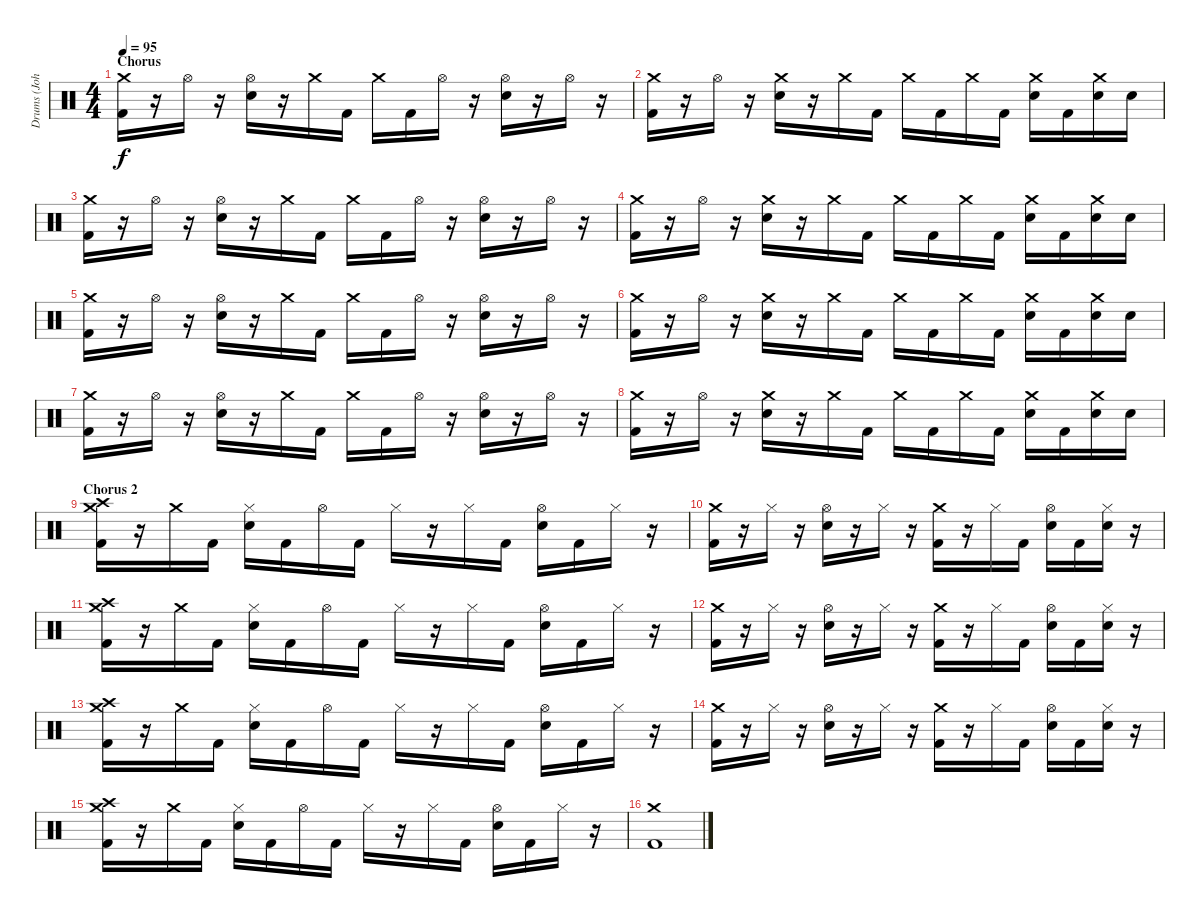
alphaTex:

\track ("Drums (John Otto)" "Drums (Joh") {instrument percussion}
\staff {score}
\articulation defaults
\ts (4 4)
\section ("" "Chorus")
\tempo 95
\clef neutral
\ks c
("Crash medium (hit)" "Kick (hit) 2").16{dy f} r.16 "Hi-Hat (open)".16 r.16 ("Hi-Hat (open)" "Electric Snare (hit)").16 r.16 "Crash medium (hit)".16 "Kick (hit) 2".16 "Crash medium (hit)".16 "Kick (hit) 2".16 "Hi-Hat (open)".16 r.16 ("Hi-Hat (open)" "Electric Snare (hit)").16 r.16 "Hi-Hat (open)".16 r.16 |
("Crash medium (hit)" "Kick (hit) 2").16 r.16 "Hi-Hat (open)".16 r.16 ("Crash medium (hit)" "Electric Snare (hit)").16 r.16 "Crash medium (hit)".16 "Kick (hit) 2".16 "Crash medium (hit)".16 "Kick (hit) 2".16 "Crash medium (hit)".16 "Kick (hit) 2".16 ("Crash medium (hit)" "Electric Snare (hit)").16 "Kick (hit) 2".16 ("Crash medium (hit)" "Electric Snare (hit)").16 "Electric Snare (hit)".16 |
("Crash medium (hit)" "Kick (hit) 2").16 r.16 "Hi-Hat (open)".16 r.16 ("Hi-Hat (open)" "Electric Snare (hit)").16 r.16 "Crash medium (hit)".16 "Kick (hit) 2".16 "Crash medium (hit)".16 "Kick (hit) 2".16 "Hi-Hat (open)".16 r.16 ("Hi-Hat (open)" "Electric Snare (hit)").16 r.16 "Hi-Hat (open)".16 r.16 |
("Crash medium (hit)" "Kick (hit) 2").16 r.16 "Hi-Hat (open)".16 r.16 ("Crash medium (hit)" "Electric Snare (hit)").16 r.16 "Crash medium (hit)".16 "Kick (hit) 2".16 "Crash medium (hit)".16 "Kick (hit) 2".16 "Crash medium (hit)".16 "Kick (hit) 2".16 ("Crash medium (hit)" "Electric Snare (hit)").16 "Kick (hit) 2".16 ("Crash medium (hit)" "Electric Snare (hit)").16 "Electric Snare (hit)".16 |
("Crash medium (hit)" "Kick (hit) 2").16 r.16 "Hi-Hat (open)".16 r.16 ("Hi-Hat (open)" "Electric Snare (hit)").16 r.16 "Crash medium (hit)".16 "Kick (hit) 2".16 "Crash medium (hit)".16 "Kick (hit) 2".16 "Hi-Hat (open)".16 r.16 ("Hi-Hat (open)" "Electric Snare (hit)").16 r.16 "Hi-Hat (open)".16 r.16 |
("Crash medium (hit)" "Kick (hit) 2").16 r.16 "Hi-Hat (open)".16 r.16 ("Crash medium (hit)" "Electric Snare (hit)").16 r.16 "Crash medium (hit)".16 "Kick (hit) 2".16 "Crash medium (hit)".16 "Kick (hit) 2".16 "Crash medium (hit)".16 "Kick (hit) 2".16 ("Crash medium (hit)" "Electric Snare (hit)").16 "Kick (hit) 2".16 ("Crash medium (hit)" "Electric Snare (hit)").16 "Electric Snare (hit)".16 |
("Crash medium (hit)" "Kick (hit) 2").16 r.16 "Hi-Hat (open)".16 r.16 ("Hi-Hat (open)" "Electric Snare (hit)").16 r.16 "Crash medium (hit)".16 "Kick (hit) 2".16 "Crash medium (hit)".16 "Kick (hit) 2".16 "Hi-Hat (open)".16 r.16 ("Hi-Hat (open)" "Electric Snare (hit)").16 r.16 "Hi-Hat (open)".16 r.16 |
("Crash medium (hit)" "Kick (hit) 2").16 r.16 "Hi-Hat (open)".16 r.16 ("Crash medium (hit)" "Electric Snare (hit)").16 r.16 "Crash medium (hit)".16 "Kick (hit) 2".16 "Crash medium (hit)".16 "Kick (hit) 2".16 "Crash medium (hit)".16 "Kick (hit) 2".16 ("Crash medium (hit)" "Electric Snare (hit)").16 "Kick (hit) 2".16 ("Crash medium (hit)" "Electric Snare (hit)").16 "Electric Snare (hit)".16 |
\section ("" "Chorus 2")
("Crash medium (hit)" "Crash high (hit)" "Kick (hit) 2").16 r.16 "Crash medium (hit)".16 "Kick (hit) 2".16 ("Hi-Hat (closed)" "Electric Snare (hit)").16 "Kick (hit) 2".16 "Hi-Hat (open)".16 "Kick (hit) 2".16 "Hi-Hat (closed)".16 r.16 "Hi-Hat (closed)".16 "Kick (hit) 2".16 ("Hi-Hat (open)" "Electric Snare (hit)").16 "Kick (hit) 2".16 "Hi-Hat (closed)".16 r.16 |
("Crash medium (hit)" "Kick (hit) 2").16 r.16 "Hi-Hat (closed)".16 r.16 ("Hi-Hat (open)" "Electric Snare (hit)").16 r.16 "Hi-Hat (closed)".16 r.16 ("Crash medium (hit)" "Kick (hit) 2").16 r.16 "Hi-Hat (closed)".16 "Kick (hit) 2".16 ("Hi-Hat (open)" "Electric Snare (hit)").16 "Kick (hit) 2".16 ("Hi-Hat (closed)" "Electric Snare (hit)").16 r.16 |
("Crash medium (hit)" "Crash high (hit)" "Kick (hit) 2").16 r.16 "Crash medium (hit)".16 "Kick (hit) 2".16 ("Hi-Hat (closed)" "Electric Snare (hit)").16 "Kick (hit) 2".16 "Hi-Hat (open)".16 "Kick (hit) 2".16 "Hi-Hat (closed)".16 r.16 "Hi-Hat (closed)".16 "Kick (hit) 2".16 ("Hi-Hat (open)" "Electric Snare (hit)").16 "Kick (hit) 2".16 "Hi-Hat (closed)".16 r.16 |
("Crash medium (hit)" "Kick (hit) 2").16 r.16 "Hi-Hat (closed)".16 r.16 ("Hi-Hat (open)" "Electric Snare (hit)").16 r.16 "Hi-Hat (closed)".16 r.16 ("Crash medium (hit)" "Kick (hit) 2").16 r.16 "Hi-Hat (closed)".16 "Kick (hit) 2".16 ("Hi-Hat (open)" "Electric Snare (hit)").16 "Kick (hit) 2".16 ("Hi-Hat (closed)" "Electric Snare (hit)").16 r.16 |
("Crash medium (hit)" "Crash high (hit)" "Kick (hit) 2").16 r.16 "Crash medium (hit)".16 "Kick (hit) 2".16 ("Hi-Hat (closed)" "Electric Snare (hit)").16 "Kick (hit) 2".16 "Hi-Hat (open)".16 "Kick (hit) 2".16 "Hi-Hat (closed)".16 r.16 "Hi-Hat (closed)".16 "Kick (hit) 2".16 ("Hi-Hat (open)" "Electric Snare (hit)").16 "Kick (hit) 2".16 "Hi-Hat (closed)".16 r.16 |
("Crash medium (hit)" "Kick (hit) 2").16 r.16 "Hi-Hat (closed)".16 r.16 ("Hi-Hat (open)" "Electric Snare (hit)").16 r.16 "Hi-Hat (closed)".16 r.16 ("Crash medium (hit)" "Kick (hit) 2").16 r.16 "Hi-Hat (closed)".16 "Kick (hit) 2".16 ("Hi-Hat (open)" "Electric Snare (hit)").16 "Kick (hit) 2".16 ("Hi-Hat (closed)" "Electric Snare (hit)").16 r.16 |
("Crash medium (hit)" "Crash high (hit)" "Kick (hit) 2").16 r.16 "Crash medium (hit)".16 "Kick (hit) 2".16 ("Hi-Hat (closed)" "Electric Snare (hit)").16 "Kick (hit) 2".16 "Hi-Hat (open)".16 "Kick (hit) 2".16 "Hi-Hat (closed)".16 r.16 "Hi-Hat (closed)".16 "Kick (hit) 2".16 ("Hi-Hat (open)" "Electric Snare (hit)").16 "Kick (hit) 2".16 "Hi-Hat (closed)".16 r.16 |
("Crash medium (hit)" "Kick (hit) 2").1
